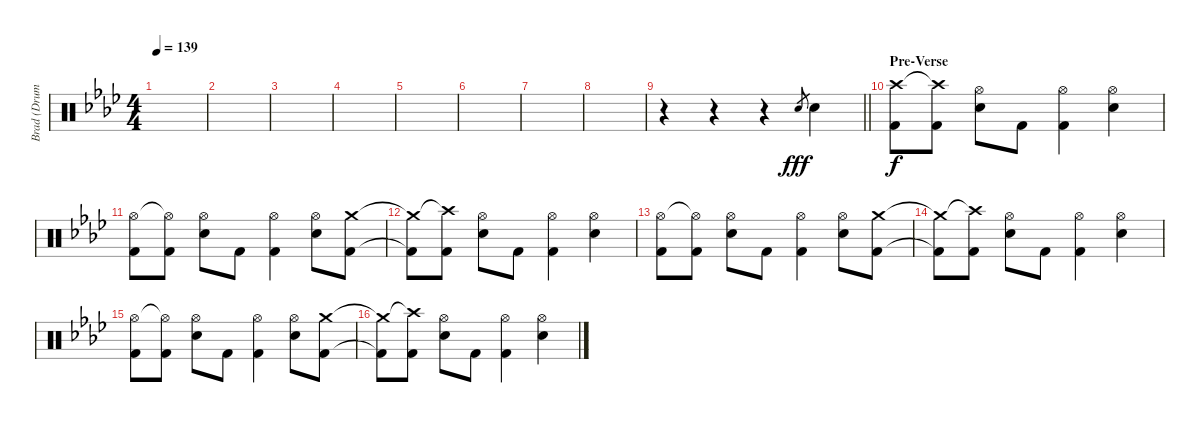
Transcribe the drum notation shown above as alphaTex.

\track ("Brad (Drums)" "Brad (Drum") {instrument percussion}
\staff {score}
\articulation defaults
\ts (4 4)
\tempo 139
\clef neutral
\ks ab
|
|
|
|
|
|
|
|
\barLineRight lightlight
r.4 r.4 r.4 "Snare (hit) 2".8{gr dy fff} "Snare (hit) 2".4 |
\section ("" "Pre-Verse")
("Crash high (hit)" "Kick (hit) 2").8{dy f} ("Crash high (hit)"{t} "Kick (hit) 2").8 ("Hi-Hat (open)" "Snare (hit) 2").8 "Kick (hit) 2".8 ("Hi-Hat (open)" "Kick (hit) 2").4 ("Hi-Hat (open)" "Snare (hit) 2").4 |
("Hi-Hat (open)" "Kick (hit) 2").8 ("Hi-Hat (open)"{t} "Kick (hit) 2").8 ("Hi-Hat (open)" "Snare (hit) 2").8 "Kick (hit) 2".8 ("Hi-Hat (open)" "Kick (hit) 2").4 ("Hi-Hat (open)" "Snare (hit) 2").8 ("Crash medium (hit)" "Kick (hit) 2").8 |
("Crash medium (hit)"{t} "Kick (hit) 2"{t}).8 ("Crash high (hit)"{t} "Kick (hit) 2").8 ("Hi-Hat (open)" "Snare (hit) 2").8 "Kick (hit) 2".8 ("Hi-Hat (open)" "Kick (hit) 2").4 ("Hi-Hat (open)" "Snare (hit) 2").4 |
("Hi-Hat (open)" "Kick (hit) 2").8 ("Hi-Hat (open)"{t} "Kick (hit) 2").8 ("Hi-Hat (open)" "Snare (hit) 2").8 "Kick (hit) 2".8 ("Hi-Hat (open)" "Kick (hit) 2").4 ("Hi-Hat (open)" "Snare (hit) 2").8 ("Crash medium (hit)" "Kick (hit) 2").8 |
("Crash medium (hit)"{t} "Kick (hit) 2"{t}).8 ("Crash high (hit)"{t} "Kick (hit) 2").8 ("Hi-Hat (open)" "Snare (hit) 2").8 "Kick (hit) 2".8 ("Hi-Hat (open)" "Kick (hit) 2").4 ("Hi-Hat (open)" "Snare (hit) 2").4 |
("Hi-Hat (open)" "Kick (hit) 2").8 ("Hi-Hat (open)"{t} "Kick (hit) 2").8 ("Hi-Hat (open)" "Snare (hit) 2").8 "Kick (hit) 2".8 ("Hi-Hat (open)" "Kick (hit) 2").4 ("Hi-Hat (open)" "Snare (hit) 2").8 ("Crash medium (hit)" "Kick (hit) 2").8 |
("Crash medium (hit)"{t} "Kick (hit) 2"{t}).8 ("Crash high (hit)"{t} "Kick (hit) 2").8 ("Hi-Hat (open)" "Snare (hit) 2").8 "Kick (hit) 2".8 ("Hi-Hat (open)" "Kick (hit) 2").4 ("Hi-Hat (open)" "Snare (hit) 2").4
